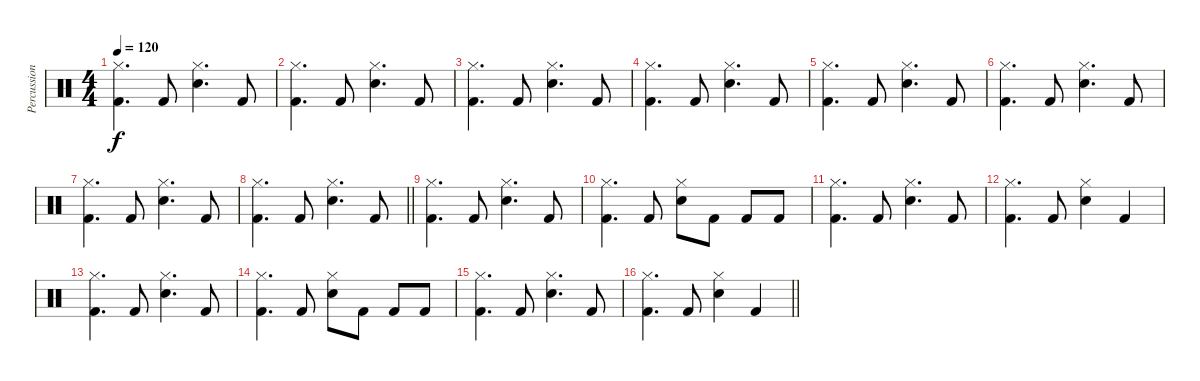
\track ("Percussions" "Percussion") {instrument percussion}
\staff {score}
\articulation defaults
\ts (4 4)
\tempo 120
\clef neutral
\ks c
("Hi-Hat (closed)" "Kick (hit) 2").4{d dy f} "Kick (hit) 2".8 ("Hi-Hat (closed)" "Snare (hit) 2").4{d} "Kick (hit) 2".8 |
("Hi-Hat (closed)" "Kick (hit) 2").4{d} "Kick (hit) 2".8 ("Hi-Hat (closed)" "Snare (hit) 2").4{d} "Kick (hit) 2".8 |
("Hi-Hat (closed)" "Kick (hit) 2").4{d} "Kick (hit) 2".8 ("Hi-Hat (closed)" "Snare (hit) 2").4{d} "Kick (hit) 2".8 |
("Hi-Hat (closed)" "Kick (hit) 2").4{d} "Kick (hit) 2".8 ("Hi-Hat (closed)" "Snare (hit) 2").4{d} "Kick (hit) 2".8 |
("Hi-Hat (closed)" "Kick (hit) 2").4{d} "Kick (hit) 2".8 ("Hi-Hat (closed)" "Snare (hit) 2").4{d} "Kick (hit) 2".8 |
("Hi-Hat (closed)" "Kick (hit) 2").4{d} "Kick (hit) 2".8 ("Hi-Hat (closed)" "Snare (hit) 2").4{d} "Kick (hit) 2".8 |
("Hi-Hat (closed)" "Kick (hit) 2").4{d} "Kick (hit) 2".8 ("Hi-Hat (closed)" "Snare (hit) 2").4{d} "Kick (hit) 2".8 |
\barLineRight lightlight
("Hi-Hat (closed)" "Kick (hit) 2").4{d} "Kick (hit) 2".8 ("Hi-Hat (closed)" "Snare (hit) 2").4{d} "Kick (hit) 2".8 |
("Hi-Hat (closed)" "Kick (hit) 2").4{d} "Kick (hit) 2".8 ("Hi-Hat (closed)" "Snare (hit) 2").4{d} "Kick (hit) 2".8 |
("Hi-Hat (closed)" "Kick (hit) 2").4{d} "Kick (hit) 2".8 ("Hi-Hat (closed)" "Snare (hit) 2").8 "Kick (hit) 2".8 "Kick (hit) 2".8 "Kick (hit) 2".8 |
("Hi-Hat (closed)" "Kick (hit) 2").4{d} "Kick (hit) 2".8 ("Hi-Hat (closed)" "Snare (hit) 2").4{d} "Kick (hit) 2".8 |
("Hi-Hat (closed)" "Kick (hit) 2").4{d} "Kick (hit) 2".8 ("Hi-Hat (closed)" "Snare (hit) 2").4 "Kick (hit) 2".4 |
("Hi-Hat (closed)" "Kick (hit) 2").4{d} "Kick (hit) 2".8 ("Hi-Hat (closed)" "Snare (hit) 2").4{d} "Kick (hit) 2".8 |
("Hi-Hat (closed)" "Kick (hit) 2").4{d} "Kick (hit) 2".8 ("Hi-Hat (closed)" "Snare (hit) 2").8 "Kick (hit) 2".8 "Kick (hit) 2".8 "Kick (hit) 2".8 |
("Hi-Hat (closed)" "Kick (hit) 2").4{d} "Kick (hit) 2".8 ("Hi-Hat (closed)" "Snare (hit) 2").4{d} "Kick (hit) 2".8 |
\barLineRight lightlight
("Hi-Hat (closed)" "Kick (hit) 2").4{d} "Kick (hit) 2".8 ("Hi-Hat (closed)" "Snare (hit) 2").4 "Kick (hit) 2".4
